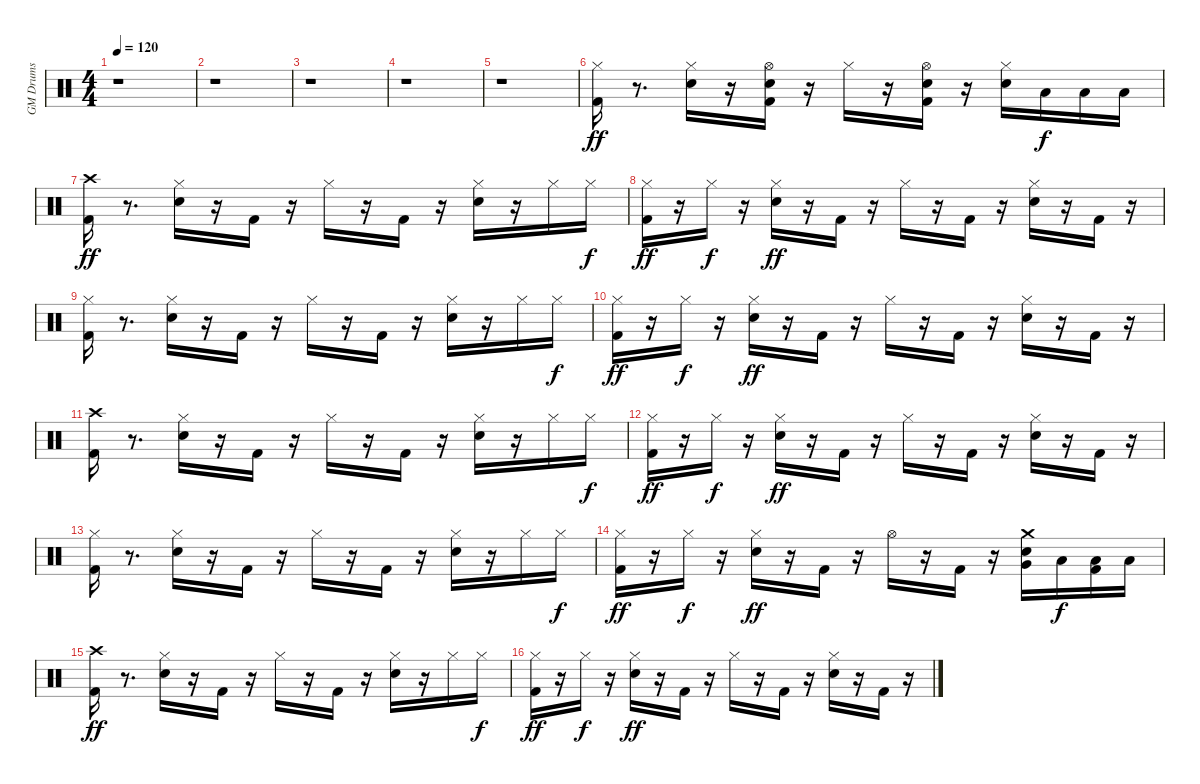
\track ("GM Drums" "GM Drums") {instrument percussion}
\staff {score}
\articulation defaults
\ts (4 4)
\tempo 120
\clef neutral
\ks c
r.1{dy ff} |
r.1 |
r.1 |
r.1 |
r.1 |
("Kick (hit) 2" "Hi-Hat (closed)").16 r.8{d} ("Snare (hit) 2" "Hi-Hat (closed)").16 r.16 ("Kick (hit) 2" "Snare (hit) 2" "Hi-Hat (open)").16 r.16 "Hi-Hat (closed)".16 r.16 ("Kick (hit) 2" "Snare (hit) 2" "Hi-Hat (open)").16 r.16 ("Snare (hit) 2" "Hi-Hat (closed)").16 "Low Floor Tom (hit)".16{dy f} "Low Floor Tom (hit)".16 "Low Floor Tom (hit)".16 |
("Kick (hit) 2" "Crash high (hit)").16{dy ff} r.8{d} ("Snare (hit) 2" "Hi-Hat (closed)").16 r.16 "Kick (hit) 2".16 r.16 "Hi-Hat (closed)".16 r.16 "Kick (hit) 2".16 r.16 ("Snare (hit) 2" "Hi-Hat (closed)").16 r.16 "Hi-Hat (closed)".16 "Hi-Hat (closed)".16{dy f} |
("Kick (hit) 2" "Hi-Hat (closed)").16{dy ff} r.16 "Hi-Hat (closed)".16{dy f} r.16 ("Snare (hit) 2" "Hi-Hat (closed)").16{dy ff} r.16 "Kick (hit) 2".16 r.16 "Hi-Hat (closed)".16 r.16 "Kick (hit) 2".16 r.16 ("Snare (hit) 2" "Hi-Hat (closed)").16 r.16 "Kick (hit) 2".16 r.16 |
("Kick (hit) 2" "Hi-Hat (closed)").16 r.8{d} ("Snare (hit) 2" "Hi-Hat (closed)").16 r.16 "Kick (hit) 2".16 r.16 "Hi-Hat (closed)".16 r.16 "Kick (hit) 2".16 r.16 ("Snare (hit) 2" "Hi-Hat (closed)").16 r.16 "Hi-Hat (closed)".16 "Hi-Hat (closed)".16{dy f} |
("Kick (hit) 2" "Hi-Hat (closed)").16{dy ff} r.16 "Hi-Hat (closed)".16{dy f} r.16 ("Snare (hit) 2" "Hi-Hat (closed)").16{dy ff} r.16 "Kick (hit) 2".16 r.16 "Hi-Hat (closed)".16 r.16 "Kick (hit) 2".16 r.16 ("Snare (hit) 2" "Hi-Hat (closed)").16 r.16 "Kick (hit) 2".16 r.16 |
("Kick (hit) 2" "Crash high (hit)").16 r.8{d} ("Snare (hit) 2" "Hi-Hat (closed)").16 r.16 "Kick (hit) 2".16 r.16 "Hi-Hat (closed)".16 r.16 "Kick (hit) 2".16 r.16 ("Snare (hit) 2" "Hi-Hat (closed)").16 r.16 "Hi-Hat (closed)".16 "Hi-Hat (closed)".16{dy f} |
("Kick (hit) 2" "Hi-Hat (closed)").16{dy ff} r.16 "Hi-Hat (closed)".16{dy f} r.16 ("Snare (hit) 2" "Hi-Hat (closed)").16{dy ff} r.16 "Kick (hit) 2".16 r.16 "Hi-Hat (closed)".16 r.16 "Kick (hit) 2".16 r.16 ("Snare (hit) 2" "Hi-Hat (closed)").16 r.16 "Kick (hit) 2".16 r.16 |
("Kick (hit) 2" "Hi-Hat (closed)").16 r.8{d} ("Snare (hit) 2" "Hi-Hat (closed)").16 r.16 "Kick (hit) 2".16 r.16 "Hi-Hat (closed)".16 r.16 "Kick (hit) 2".16 r.16 ("Snare (hit) 2" "Hi-Hat (closed)").16 r.16 "Hi-Hat (closed)".16 "Hi-Hat (closed)".16{dy f} |
("Kick (hit) 2" "Hi-Hat (closed)").16{dy ff} r.16 "Hi-Hat (closed)".16{dy f} r.16 ("Snare (hit) 2" "Hi-Hat (closed)").16{dy ff} r.16 "Kick (hit) 2".16 r.16 "Hi-Hat (open)".16 r.16 "Kick (hit) 2".16 r.16 ("Snare (hit) 2" "Very Low Tom (hit)" "Crash medium (hit)").16 "Low Floor Tom (hit)".16{dy f} ("Kick (hit) 2" "Low Floor Tom (hit)").16 "Low Floor Tom (hit)".16 |
("Kick (hit) 2" "Crash high (hit)").16{dy ff} r.8{d} ("Snare (hit) 2" "Hi-Hat (closed)").16 r.16 "Kick (hit) 2".16 r.16 "Hi-Hat (closed)".16 r.16 "Kick (hit) 2".16 r.16 ("Snare (hit) 2" "Hi-Hat (closed)").16 r.16 "Hi-Hat (closed)".16 "Hi-Hat (closed)".16{dy f} |
("Kick (hit) 2" "Hi-Hat (closed)").16{dy ff} r.16 "Hi-Hat (closed)".16{dy f} r.16 ("Snare (hit) 2" "Hi-Hat (closed)").16{dy ff} r.16 "Kick (hit) 2".16 r.16 "Hi-Hat (closed)".16 r.16 "Kick (hit) 2".16 r.16 ("Snare (hit) 2" "Hi-Hat (closed)").16 r.16 "Kick (hit) 2".16 r.16
